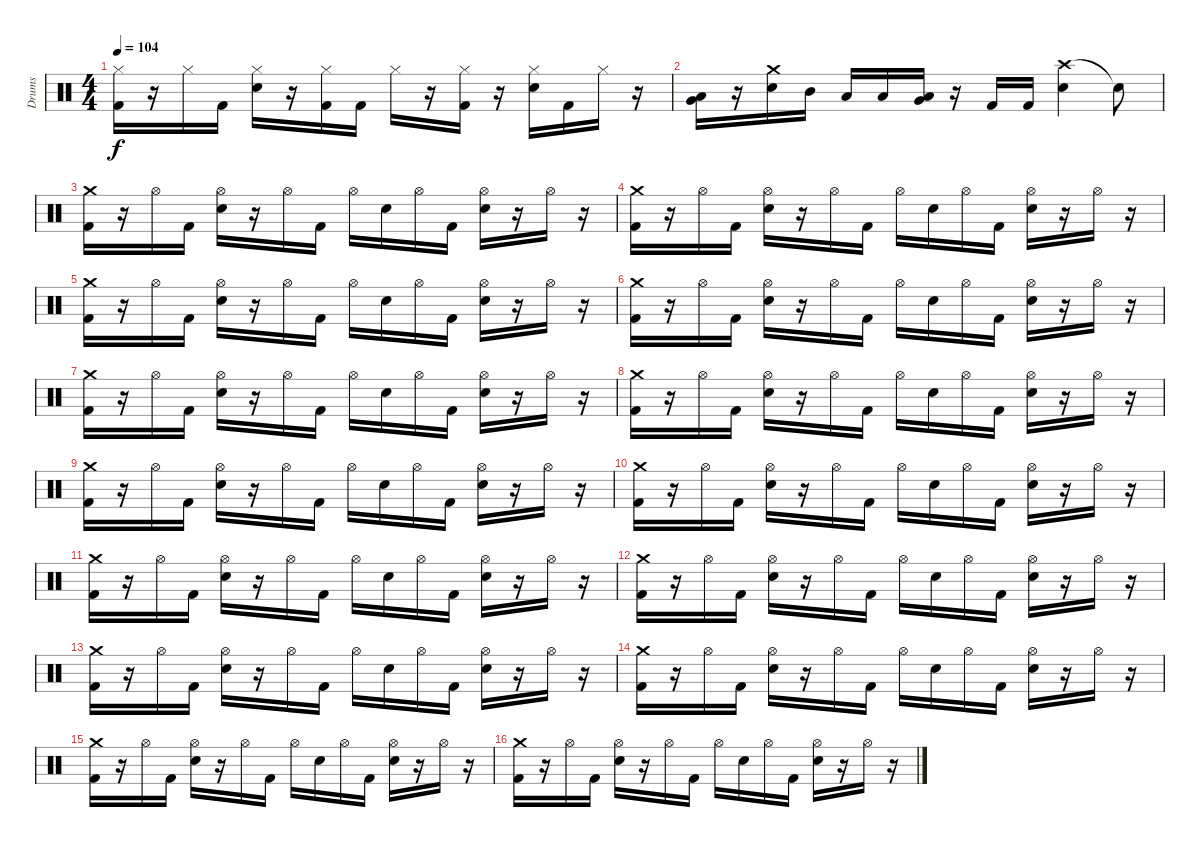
\track ("Drums" "Drums") {instrument percussion}
\staff {score}
\articulation defaults
\ts (4 4)
\tempo 104
\clef neutral
\ks c
("Hi-Hat (closed)" "Kick (hit) 2").16{dy f} r.16 "Hi-Hat (closed)".16 "Kick (hit) 2".16 ("Hi-Hat (closed)" "Electric Snare (hit)").16 r.16 ("Hi-Hat (closed)" "Kick (hit) 2").16 "Kick (hit) 2".16 "Hi-Hat (closed)".16 r.16 ("Hi-Hat (closed)" "Kick (hit) 2").16 r.16 ("Hi-Hat (closed)" "Electric Snare (hit)").16 "Kick (hit) 2".16 "Hi-Hat (closed)".16 r.16 |
("Low Tom (hit)" "Very Low Tom (hit)").16 r.16 ("Crash medium (hit)" "Electric Snare (hit)").16 "Mid Tom (hit)".16 "Low Tom (hit)".16 "Low Tom (hit)".16 ("Very Low Tom (hit)" "Low Floor Tom (hit)").16 r.16 "Kick (hit) 2".16 "Kick (hit) 2".16 ("Crash high (hit)" "Electric Snare (hit)").4 "Snare (hit)"{t}.8 |
("Crash medium (hit)" "Kick (hit) 2").16 r.16 "Hi-Hat (open)".16 "Kick (hit) 2".16 ("Hi-Hat (open)" "Electric Snare (hit)").16 r.16 "Hi-Hat (open)".16 "Kick (hit) 2".16 "Hi-Hat (open)".16 "Electric Snare (hit)".16 "Hi-Hat (open)".16 "Kick (hit) 2".16 ("Hi-Hat (open)" "Electric Snare (hit)").16 r.16 "Hi-Hat (open)".16 r.16 |
("Crash medium (hit)" "Kick (hit) 2").16 r.16 "Hi-Hat (open)".16 "Kick (hit) 2".16 ("Hi-Hat (open)" "Electric Snare (hit)").16 r.16 "Hi-Hat (open)".16 "Kick (hit) 2".16 "Hi-Hat (open)".16 "Electric Snare (hit)".16 "Hi-Hat (open)".16 "Kick (hit) 2".16 ("Hi-Hat (open)" "Electric Snare (hit)").16 r.16 "Hi-Hat (open)".16 r.16 |
("Crash medium (hit)" "Kick (hit) 2").16 r.16 "Hi-Hat (open)".16 "Kick (hit) 2".16 ("Hi-Hat (open)" "Electric Snare (hit)").16 r.16 "Hi-Hat (open)".16 "Kick (hit) 2".16 "Hi-Hat (open)".16 "Electric Snare (hit)".16 "Hi-Hat (open)".16 "Kick (hit) 2".16 ("Hi-Hat (open)" "Electric Snare (hit)").16 r.16 "Hi-Hat (open)".16 r.16 |
("Crash medium (hit)" "Kick (hit) 2").16 r.16 "Hi-Hat (open)".16 "Kick (hit) 2".16 ("Hi-Hat (open)" "Electric Snare (hit)").16 r.16 "Hi-Hat (open)".16 "Kick (hit) 2".16 "Hi-Hat (open)".16 "Electric Snare (hit)".16 "Hi-Hat (open)".16 "Kick (hit) 2".16 ("Hi-Hat (open)" "Electric Snare (hit)").16 r.16 "Hi-Hat (open)".16 r.16 |
("Crash medium (hit)" "Kick (hit) 2").16 r.16 "Hi-Hat (open)".16 "Kick (hit) 2".16 ("Hi-Hat (open)" "Electric Snare (hit)").16 r.16 "Hi-Hat (open)".16 "Kick (hit) 2".16 "Hi-Hat (open)".16 "Electric Snare (hit)".16 "Hi-Hat (open)".16 "Kick (hit) 2".16 ("Hi-Hat (open)" "Electric Snare (hit)").16 r.16 "Hi-Hat (open)".16 r.16 |
("Crash medium (hit)" "Kick (hit) 2").16 r.16 "Hi-Hat (open)".16 "Kick (hit) 2".16 ("Hi-Hat (open)" "Electric Snare (hit)").16 r.16 "Hi-Hat (open)".16 "Kick (hit) 2".16 "Hi-Hat (open)".16 "Electric Snare (hit)".16 "Hi-Hat (open)".16 "Kick (hit) 2".16 ("Hi-Hat (open)" "Electric Snare (hit)").16 r.16 "Hi-Hat (open)".16 r.16 |
("Crash medium (hit)" "Kick (hit) 2").16 r.16 "Hi-Hat (open)".16 "Kick (hit) 2".16 ("Hi-Hat (open)" "Electric Snare (hit)").16 r.16 "Hi-Hat (open)".16 "Kick (hit) 2".16 "Hi-Hat (open)".16 "Electric Snare (hit)".16 "Hi-Hat (open)".16 "Kick (hit) 2".16 ("Hi-Hat (open)" "Electric Snare (hit)").16 r.16 "Hi-Hat (open)".16 r.16 |
("Crash medium (hit)" "Kick (hit) 2").16 r.16 "Hi-Hat (open)".16 "Kick (hit) 2".16 ("Hi-Hat (open)" "Electric Snare (hit)").16 r.16 "Hi-Hat (open)".16 "Kick (hit) 2".16 "Hi-Hat (open)".16 "Electric Snare (hit)".16 "Hi-Hat (open)".16 "Kick (hit) 2".16 ("Hi-Hat (open)" "Electric Snare (hit)").16 r.16 "Hi-Hat (open)".16 r.16 |
("Crash medium (hit)" "Kick (hit) 2").16 r.16 "Hi-Hat (open)".16 "Kick (hit) 2".16 ("Hi-Hat (open)" "Electric Snare (hit)").16 r.16 "Hi-Hat (open)".16 "Kick (hit) 2".16 "Hi-Hat (open)".16 "Electric Snare (hit)".16 "Hi-Hat (open)".16 "Kick (hit) 2".16 ("Hi-Hat (open)" "Electric Snare (hit)").16 r.16 "Hi-Hat (open)".16 r.16 |
("Crash medium (hit)" "Kick (hit) 2").16 r.16 "Hi-Hat (open)".16 "Kick (hit) 2".16 ("Hi-Hat (open)" "Electric Snare (hit)").16 r.16 "Hi-Hat (open)".16 "Kick (hit) 2".16 "Hi-Hat (open)".16 "Electric Snare (hit)".16 "Hi-Hat (open)".16 "Kick (hit) 2".16 ("Hi-Hat (open)" "Electric Snare (hit)").16 r.16 "Hi-Hat (open)".16 r.16 |
("Crash medium (hit)" "Kick (hit) 2").16 r.16 "Hi-Hat (open)".16 "Kick (hit) 2".16 ("Hi-Hat (open)" "Electric Snare (hit)").16 r.16 "Hi-Hat (open)".16 "Kick (hit) 2".16 "Hi-Hat (open)".16 "Electric Snare (hit)".16 "Hi-Hat (open)".16 "Kick (hit) 2".16 ("Hi-Hat (open)" "Electric Snare (hit)").16 r.16 "Hi-Hat (open)".16 r.16 |
("Crash medium (hit)" "Kick (hit) 2").16 r.16 "Hi-Hat (open)".16 "Kick (hit) 2".16 ("Hi-Hat (open)" "Electric Snare (hit)").16 r.16 "Hi-Hat (open)".16 "Kick (hit) 2".16 "Hi-Hat (open)".16 "Electric Snare (hit)".16 "Hi-Hat (open)".16 "Kick (hit) 2".16 ("Hi-Hat (open)" "Electric Snare (hit)").16 r.16 "Hi-Hat (open)".16 r.16 |
("Crash medium (hit)" "Kick (hit) 2").16 r.16 "Hi-Hat (open)".16 "Kick (hit) 2".16 ("Hi-Hat (open)" "Electric Snare (hit)").16 r.16 "Hi-Hat (open)".16 "Kick (hit) 2".16 "Hi-Hat (open)".16 "Electric Snare (hit)".16 "Hi-Hat (open)".16 "Kick (hit) 2".16 ("Hi-Hat (open)" "Electric Snare (hit)").16 r.16 "Hi-Hat (open)".16 r.16 |
("Crash medium (hit)" "Kick (hit) 2").16 r.16 "Hi-Hat (open)".16 "Kick (hit) 2".16 ("Hi-Hat (open)" "Electric Snare (hit)").16 r.16 "Hi-Hat (open)".16 "Kick (hit) 2".16 "Hi-Hat (open)".16 "Electric Snare (hit)".16 "Hi-Hat (open)".16 "Kick (hit) 2".16 ("Hi-Hat (open)" "Electric Snare (hit)").16 r.16 "Hi-Hat (open)".16 r.16
